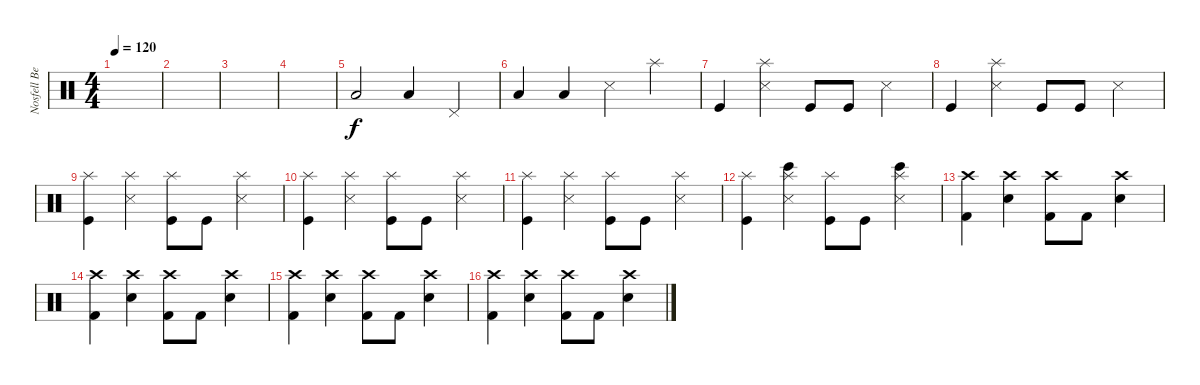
\track ("Nosfell Beat Box" "Nosfell Be") {instrument percussion}
\staff {score}
\articulation defaults
\ts (4 4)
\tempo 120
\clef neutral
\ks c
|
|
|
|
"Low Tom (hit)".2 "Low Tom (hit)".4 "Pedal Hi-Hat (hit)".4 |
"Low Tom (hit)".4 "Low Tom (hit)".4 "Snare (side stick) 3".4 "Splash (hit)".4 |
"Kick (hit)".4 ("Snare (side stick) 3" "Splash (hit)").4 "Kick (hit)".8 "Kick (hit)".8 "Snare (side stick) 3".4 |
"Kick (hit)".4 ("Snare (side stick) 3" "Splash (hit)").4 "Kick (hit)".8 "Kick (hit)".8 "Snare (side stick) 3".4 |
("Kick (hit)" "Splash (hit)").4 ("Snare (side stick) 3" "Splash (hit)").4 ("Kick (hit)" "Splash (hit)").8 "Kick (hit)".8 ("Snare (side stick) 3" "Splash (hit)").4 |
("Kick (hit)" "Splash (hit)").4 ("Snare (side stick) 3" "Splash (hit)").4 ("Kick (hit)" "Splash (hit)").8 "Kick (hit)".8 ("Snare (side stick) 3" "Splash (hit)").4 |
("Kick (hit)" "Splash (hit)").4 ("Snare (side stick) 3" "Splash (hit)").4 ("Kick (hit)" "Splash (hit)").8 "Kick (hit)".8 ("Snare (side stick) 3" "Splash (hit)").4 |
("Kick (hit)" "Splash (hit)").4 ("Bongo High (hit)" "Snare (side stick) 3" "Splash (hit)").4 ("Kick (hit)" "Splash (hit)").8 "Kick (hit)".8 ("Bongo High (hit)" "Snare (side stick) 3" "Splash (hit)").4 |
("Crash high (hit)" "Kick (hit) 2").4 ("Crash high (hit)" "Electric Snare (hit)").4 ("Crash high (hit)" "Kick (hit) 2").8 "Kick (hit) 2".8 ("Crash high (hit)" "Electric Snare (hit)").4 |
("Crash high (hit)" "Kick (hit) 2").4 ("Crash high (hit)" "Electric Snare (hit)").4 ("Crash high (hit)" "Kick (hit) 2").8 "Kick (hit) 2".8 ("Crash high (hit)" "Electric Snare (hit)").4 |
("Crash high (hit)" "Kick (hit) 2").4 ("Crash high (hit)" "Electric Snare (hit)").4 ("Crash high (hit)" "Kick (hit) 2").8 "Kick (hit) 2".8 ("Crash high (hit)" "Electric Snare (hit)").4 |
("Crash high (hit)" "Kick (hit) 2").4 ("Crash high (hit)" "Electric Snare (hit)").4 ("Crash high (hit)" "Kick (hit) 2").8 "Kick (hit) 2".8 ("Crash high (hit)" "Electric Snare (hit)").4
